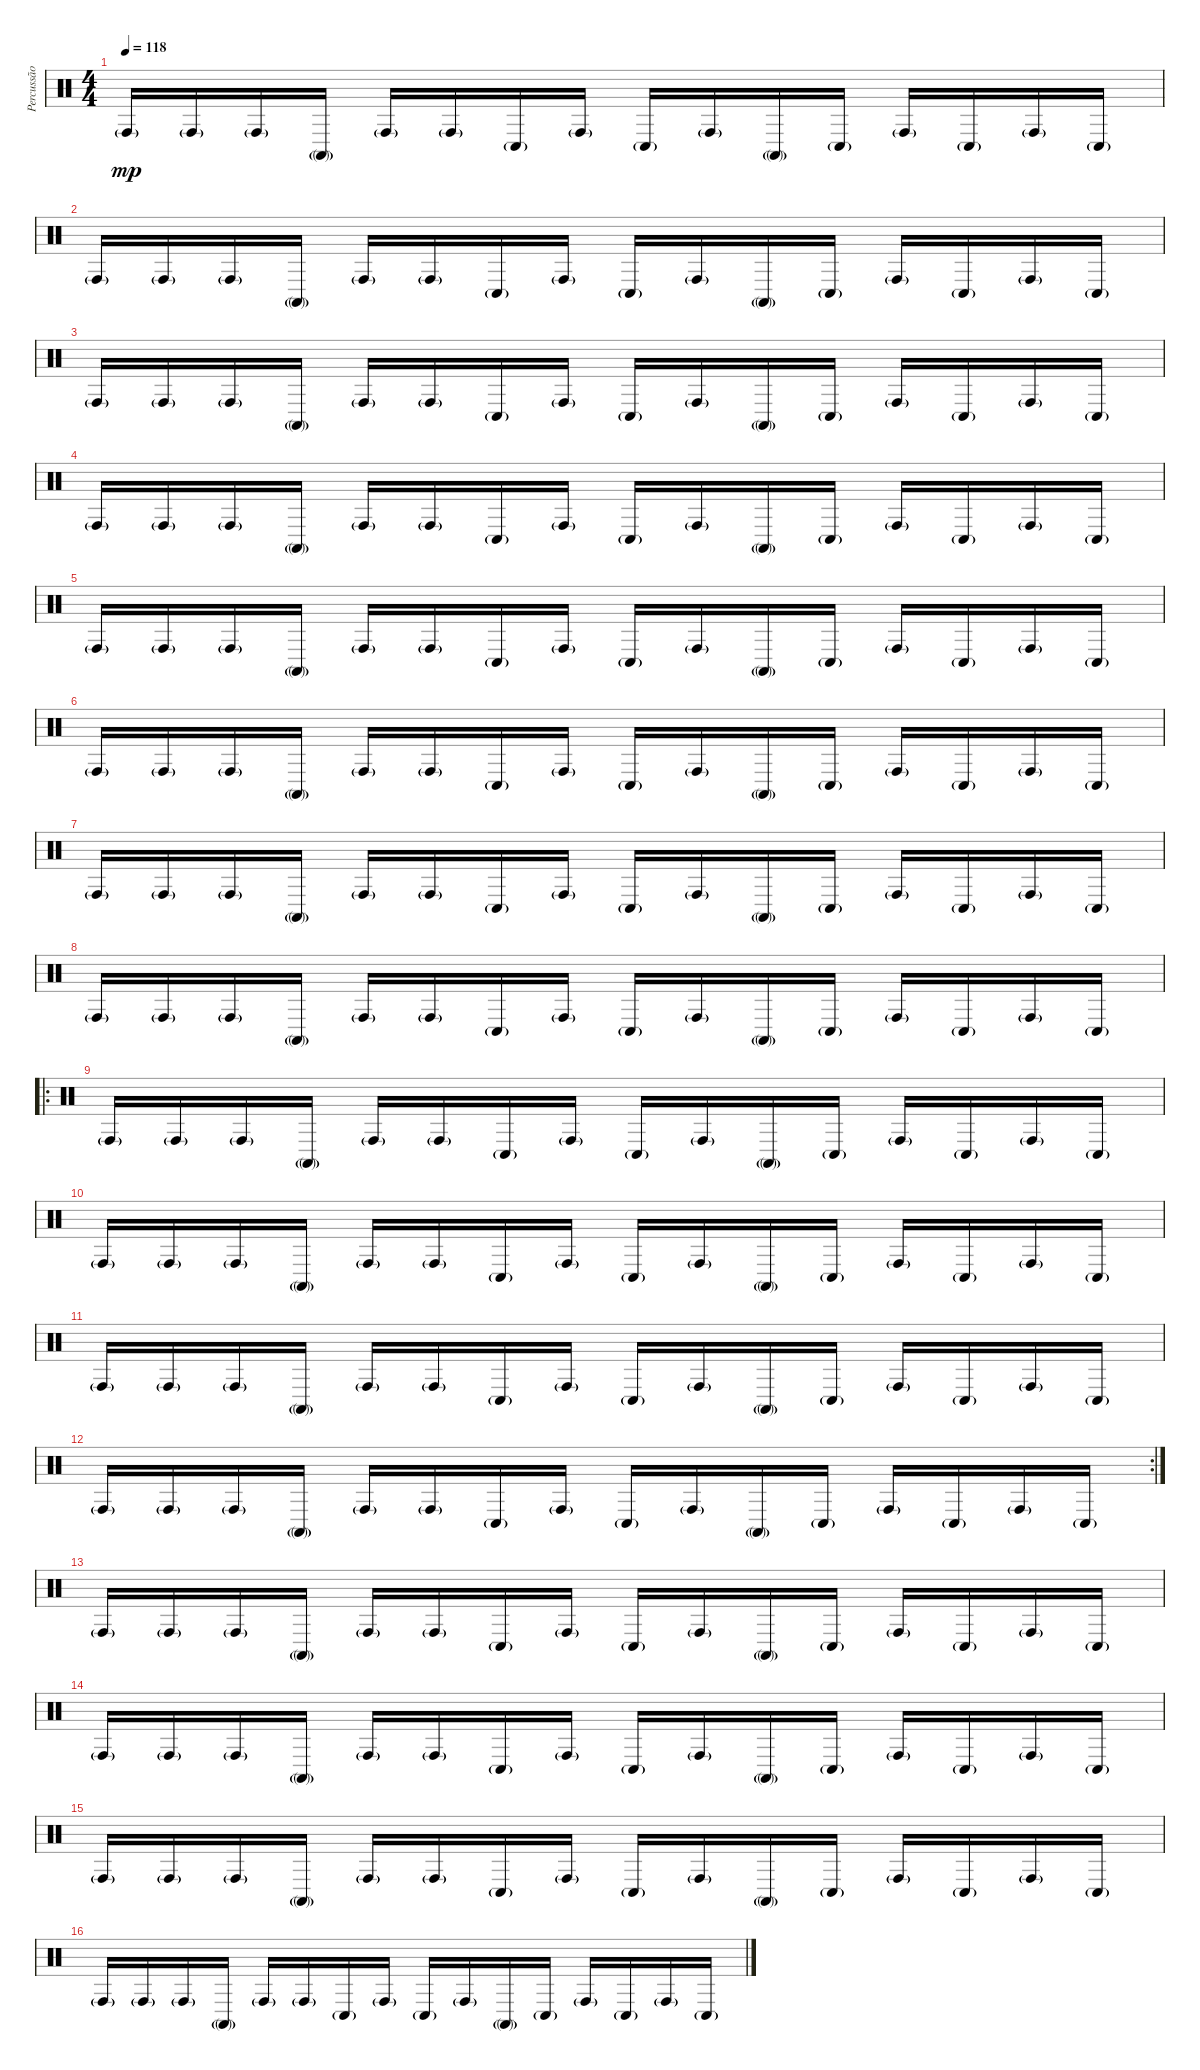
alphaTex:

\track ("Percussão" "Percussão") {instrument percussion}
\staff {score}
\articulation defaults
\ts (4 4)
\tempo 118
\clef neutral
\ks c "Conga high (hit)"{g}.16{dy mp} "Conga high (hit)"{g}.16 "Conga high (hit)"{g}.16 "Conga high (mute)"{g}.16 "Conga high (hit)"{g}.16 "Conga high (hit)"{g}.16 "Conga low (hit)"{g}.16 "Conga high (hit)"{g}.16 "Conga low (hit)"{g}.16 "Conga high (hit)"{g}.16 "Conga high (mute)"{g}.16 "Conga low (hit)"{g}.16 "Conga high (hit)"{g}.16 "Conga low (hit)"{g}.16 "Conga high (hit)"{g}.16 "Conga low (hit)"{g}.16
|
"Conga high (hit)"{g}.16 "Conga high (hit)"{g}.16 "Conga high (hit)"{g}.16 "Conga high (mute)"{g}.16 "Conga high (hit)"{g}.16 "Conga high (hit)"{g}.16 "Conga low (hit)"{g}.16 "Conga high (hit)"{g}.16 "Conga low (hit)"{g}.16 "Conga high (hit)"{g}.16 "Conga high (mute)"{g}.16 "Conga low (hit)"{g}.16 "Conga high (hit)"{g}.16 "Conga low (hit)"{g}.16 "Conga high (hit)"{g}.16 "Conga low (hit)"{g}.16 |
"Conga high (hit)"{g}.16 "Conga high (hit)"{g}.16 "Conga high (hit)"{g}.16 "Conga high (mute)"{g}.16 "Conga high (hit)"{g}.16 "Conga high (hit)"{g}.16 "Conga low (hit)"{g}.16 "Conga high (hit)"{g}.16 "Conga low (hit)"{g}.16 "Conga high (hit)"{g}.16 "Conga high (mute)"{g}.16 "Conga low (hit)"{g}.16 "Conga high (hit)"{g}.16 "Conga low (hit)"{g}.16 "Conga high (hit)"{g}.16 "Conga low (hit)"{g}.16 |
"Conga high (hit)"{g}.16 "Conga high (hit)"{g}.16 "Conga high (hit)"{g}.16 "Conga high (mute)"{g}.16 "Conga high (hit)"{g}.16 "Conga high (hit)"{g}.16 "Conga low (hit)"{g}.16 "Conga high (hit)"{g}.16 "Conga low (hit)"{g}.16 "Conga high (hit)"{g}.16 "Conga high (mute)"{g}.16 "Conga low (hit)"{g}.16 "Conga high (hit)"{g}.16 "Conga low (hit)"{g}.16 "Conga high (hit)"{g}.16 "Conga low (hit)"{g}.16 |
"Conga high (hit)"{g}.16 "Conga high (hit)"{g}.16 "Conga high (hit)"{g}.16 "Conga high (mute)"{g}.16 "Conga high (hit)"{g}.16 "Conga high (hit)"{g}.16 "Conga low (hit)"{g}.16 "Conga high (hit)"{g}.16 "Conga low (hit)"{g}.16 "Conga high (hit)"{g}.16 "Conga high (mute)"{g}.16 "Conga low (hit)"{g}.16 "Conga high (hit)"{g}.16 "Conga low (hit)"{g}.16 "Conga high (hit)"{g}.16 "Conga low (hit)"{g}.16 |
"Conga high (hit)"{g}.16 "Conga high (hit)"{g}.16 "Conga high (hit)"{g}.16 "Conga high (mute)"{g}.16 "Conga high (hit)"{g}.16 "Conga high (hit)"{g}.16 "Conga low (hit)"{g}.16 "Conga high (hit)"{g}.16 "Conga low (hit)"{g}.16 "Conga high (hit)"{g}.16 "Conga high (mute)"{g}.16 "Conga low (hit)"{g}.16 "Conga high (hit)"{g}.16 "Conga low (hit)"{g}.16 "Conga high (hit)"{g}.16 "Conga low (hit)"{g}.16 |
"Conga high (hit)"{g}.16 "Conga high (hit)"{g}.16 "Conga high (hit)"{g}.16 "Conga high (mute)"{g}.16 "Conga high (hit)"{g}.16 "Conga high (hit)"{g}.16 "Conga low (hit)"{g}.16 "Conga high (hit)"{g}.16 "Conga low (hit)"{g}.16 "Conga high (hit)"{g}.16 "Conga high (mute)"{g}.16 "Conga low (hit)"{g}.16 "Conga high (hit)"{g}.16 "Conga low (hit)"{g}.16 "Conga high (hit)"{g}.16 "Conga low (hit)"{g}.16 |
"Conga high (hit)"{g}.16 "Conga high (hit)"{g}.16 "Conga high (hit)"{g}.16 "Conga high (mute)"{g}.16 "Conga high (hit)"{g}.16 "Conga high (hit)"{g}.16 "Conga low (hit)"{g}.16 "Conga high (hit)"{g}.16 "Conga low (hit)"{g}.16 "Conga high (hit)"{g}.16 "Conga high (mute)"{g}.16 "Conga low (hit)"{g}.16 "Conga high (hit)"{g}.16 "Conga low (hit)"{g}.16 "Conga high (hit)"{g}.16 "Conga low (hit)"{g}.16 |
\ro "Conga high (hit)"{g}.16 "Conga high (hit)"{g}.16 "Conga high (hit)"{g}.16 "Conga high (mute)"{g}.16 "Conga high (hit)"{g}.16 "Conga high (hit)"{g}.16 "Conga low (hit)"{g}.16 "Conga high (hit)"{g}.16 "Conga low (hit)"{g}.16 "Conga high (hit)"{g}.16 "Conga high (mute)"{g}.16 "Conga low (hit)"{g}.16 "Conga high (hit)"{g}.16 "Conga low (hit)"{g}.16 "Conga high (hit)"{g}.16 "Conga low (hit)"{g}.16
|
"Conga high (hit)"{g}.16 "Conga high (hit)"{g}.16 "Conga high (hit)"{g}.16 "Conga high (mute)"{g}.16 "Conga high (hit)"{g}.16 "Conga high (hit)"{g}.16 "Conga low (hit)"{g}.16 "Conga high (hit)"{g}.16 "Conga low (hit)"{g}.16 "Conga high (hit)"{g}.16 "Conga high (mute)"{g}.16 "Conga low (hit)"{g}.16 "Conga high (hit)"{g}.16 "Conga low (hit)"{g}.16 "Conga high (hit)"{g}.16 "Conga low (hit)"{g}.16 |
"Conga high (hit)"{g}.16 "Conga high (hit)"{g}.16 "Conga high (hit)"{g}.16 "Conga high (mute)"{g}.16 "Conga high (hit)"{g}.16 "Conga high (hit)"{g}.16 "Conga low (hit)"{g}.16 "Conga high (hit)"{g}.16 "Conga low (hit)"{g}.16 "Conga high (hit)"{g}.16 "Conga high (mute)"{g}.16 "Conga low (hit)"{g}.16 "Conga high (hit)"{g}.16 "Conga low (hit)"{g}.16 "Conga high (hit)"{g}.16 "Conga low (hit)"{g}.16 |
\rc 2 "Conga high (hit)"{g}.16 "Conga high (hit)"{g}.16 "Conga high (hit)"{g}.16 "Conga high (mute)"{g}.16 "Conga high (hit)"{g}.16 "Conga high (hit)"{g}.16 "Conga low (hit)"{g}.16 "Conga high (hit)"{g}.16 "Conga low (hit)"{g}.16 "Conga high (hit)"{g}.16 "Conga high (mute)"{g}.16 "Conga low (hit)"{g}.16 "Conga high (hit)"{g}.16 "Conga low (hit)"{g}.16 "Conga high (hit)"{g}.16 "Conga low (hit)"{g}.16
|
"Conga high (hit)"{g}.16 "Conga high (hit)"{g}.16 "Conga high (hit)"{g}.16 "Conga high (mute)"{g}.16 "Conga high (hit)"{g}.16 "Conga high (hit)"{g}.16 "Conga low (hit)"{g}.16 "Conga high (hit)"{g}.16 "Conga low (hit)"{g}.16 "Conga high (hit)"{g}.16 "Conga high (mute)"{g}.16 "Conga low (hit)"{g}.16 "Conga high (hit)"{g}.16 "Conga low (hit)"{g}.16 "Conga high (hit)"{g}.16 "Conga low (hit)"{g}.16 |
"Conga high (hit)"{g}.16 "Conga high (hit)"{g}.16 "Conga high (hit)"{g}.16 "Conga high (mute)"{g}.16 "Conga high (hit)"{g}.16 "Conga high (hit)"{g}.16 "Conga low (hit)"{g}.16 "Conga high (hit)"{g}.16 "Conga low (hit)"{g}.16 "Conga high (hit)"{g}.16 "Conga high (mute)"{g}.16 "Conga low (hit)"{g}.16 "Conga high (hit)"{g}.16 "Conga low (hit)"{g}.16 "Conga high (hit)"{g}.16 "Conga low (hit)"{g}.16 |
"Conga high (hit)"{g}.16 "Conga high (hit)"{g}.16 "Conga high (hit)"{g}.16 "Conga high (mute)"{g}.16 "Conga high (hit)"{g}.16 "Conga high (hit)"{g}.16 "Conga low (hit)"{g}.16 "Conga high (hit)"{g}.16 "Conga low (hit)"{g}.16 "Conga high (hit)"{g}.16 "Conga high (mute)"{g}.16 "Conga low (hit)"{g}.16 "Conga high (hit)"{g}.16 "Conga low (hit)"{g}.16 "Conga high (hit)"{g}.16 "Conga low (hit)"{g}.16 |
"Conga high (hit)"{g}.16 "Conga high (hit)"{g}.16 "Conga high (hit)"{g}.16 "Conga high (mute)"{g}.16 "Conga high (hit)"{g}.16 "Conga high (hit)"{g}.16 "Conga low (hit)"{g}.16 "Conga high (hit)"{g}.16 "Conga low (hit)"{g}.16 "Conga high (hit)"{g}.16 "Conga high (mute)"{g}.16 "Conga low (hit)"{g}.16 "Conga high (hit)"{g}.16 "Conga low (hit)"{g}.16 "Conga high (hit)"{g}.16 "Conga low (hit)"{g}.16
